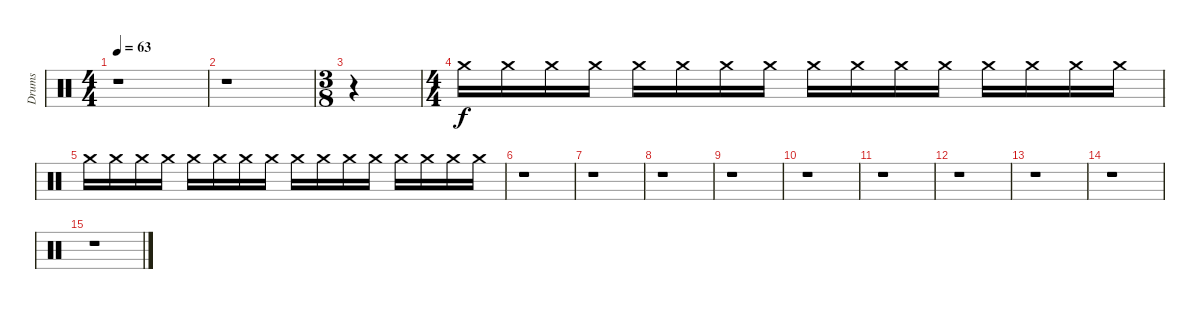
\track ("Drums" "Drums") {instrument percussion}
\staff {score}
\articulation defaults
\ts (4 4)
\tempo 63
\clef neutral
\ks c
r.1{dy f} |
r.1 |
\ts (3 8)
r.4 |
\ts (4 4)
"Crash medium (hit)".16 "Crash medium (hit)".16 "Crash medium (hit)".16 "Crash medium (hit)".16 "Crash medium (hit)".16 "Crash medium (hit)".16 "Crash medium (hit)".16 "Crash medium (hit)".16 "Crash medium (hit)".16 "Crash medium (hit)".16 "Crash medium (hit)".16 "Crash medium (hit)".16 "Crash medium (hit)".16 "Crash medium (hit)".16 "Crash medium (hit)".16 "Crash medium (hit)".16 |
"Crash medium (hit)".16 "Crash medium (hit)".16 "Crash medium (hit)".16 "Crash medium (hit)".16 "Crash medium (hit)".16 "Crash medium (hit)".16 "Crash medium (hit)".16 "Crash medium (hit)".16 "Crash medium (hit)".16 "Crash medium (hit)".16 "Crash medium (hit)".16 "Crash medium (hit)".16 "Crash medium (hit)".16 "Crash medium (hit)".16 "Crash medium (hit)".16 "Crash medium (hit)".16 |
r.1 |
r.1 |
r.1 |
r.1 |
r.1 |
r.1 |
r.1 |
r.1 |
r.1 |
r.1
